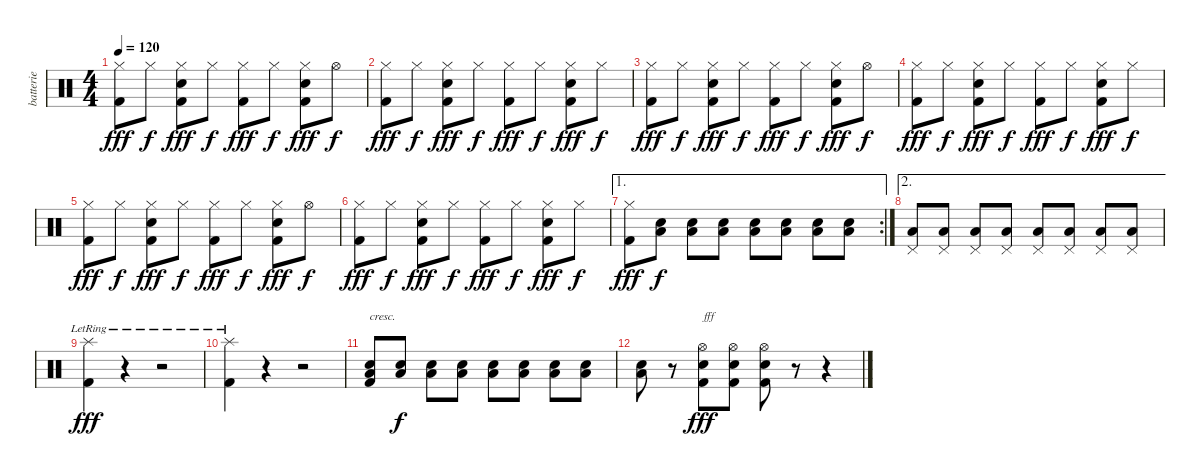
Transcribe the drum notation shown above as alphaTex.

\track ("batterie" "batterie") {instrument percussion}
\staff {score}
\articulation defaults
\ts (4 4)
\tempo 120
\clef neutral
\ks c
("Hi-Hat (closed)" "Kick (hit) 2").8{dy fff} "Hi-Hat (closed)".8{dy f} ("Hi-Hat (closed)" "Electric Snare (hit)" "Kick (hit) 2").8{dy fff} "Hi-Hat (closed)".8{dy f} ("Hi-Hat (closed)" "Kick (hit) 2").8{dy fff} "Hi-Hat (closed)".8{dy f} ("Hi-Hat (closed)" "Electric Snare (hit)" "Kick (hit) 2").8{dy fff} "Hi-Hat (open)".8{dy f} |
("Hi-Hat (closed)" "Kick (hit) 2").8{dy fff} "Hi-Hat (closed)".8{dy f} ("Hi-Hat (closed)" "Electric Snare (hit)" "Kick (hit) 2").8{dy fff} "Hi-Hat (closed)".8{dy f} ("Hi-Hat (closed)" "Kick (hit) 2").8{dy fff} "Hi-Hat (closed)".8{dy f} ("Hi-Hat (closed)" "Electric Snare (hit)" "Kick (hit) 2").8{dy fff} "Hi-Hat (closed)".8{dy f} |
("Hi-Hat (closed)" "Kick (hit) 2").8{dy fff} "Hi-Hat (closed)".8{dy f} ("Hi-Hat (closed)" "Electric Snare (hit)" "Kick (hit) 2").8{dy fff} "Hi-Hat (closed)".8{dy f} ("Hi-Hat (closed)" "Kick (hit) 2").8{dy fff} "Hi-Hat (closed)".8{dy f} ("Hi-Hat (closed)" "Electric Snare (hit)" "Kick (hit) 2").8{dy fff} "Hi-Hat (open)".8{dy f} |
("Hi-Hat (closed)" "Kick (hit) 2").8{dy fff} "Hi-Hat (closed)".8{dy f} ("Hi-Hat (closed)" "Electric Snare (hit)" "Kick (hit) 2").8{dy fff} "Hi-Hat (closed)".8{dy f} ("Hi-Hat (closed)" "Kick (hit) 2").8{dy fff} "Hi-Hat (closed)".8{dy f} ("Hi-Hat (closed)" "Electric Snare (hit)" "Kick (hit) 2").8{dy fff} "Hi-Hat (closed)".8{dy f} |
("Hi-Hat (closed)" "Kick (hit) 2").8{dy fff} "Hi-Hat (closed)".8{dy f} ("Hi-Hat (closed)" "Electric Snare (hit)" "Kick (hit) 2").8{dy fff} "Hi-Hat (closed)".8{dy f} ("Hi-Hat (closed)" "Kick (hit) 2").8{dy fff} "Hi-Hat (closed)".8{dy f} ("Hi-Hat (closed)" "Electric Snare (hit)" "Kick (hit) 2").8{dy fff} "Hi-Hat (open)".8{dy f} |
("Hi-Hat (closed)" "Kick (hit) 2").8{dy fff} "Hi-Hat (closed)".8{dy f} ("Hi-Hat (closed)" "Electric Snare (hit)" "Kick (hit) 2").8{dy fff} "Hi-Hat (closed)".8{dy f} ("Hi-Hat (closed)" "Kick (hit) 2").8{dy fff} "Hi-Hat (closed)".8{dy f} ("Hi-Hat (closed)" "Electric Snare (hit)" "Kick (hit) 2").8{dy fff} "Hi-Hat (closed)".8{dy f} |
\ae 1
\rc 2
("Hi-Hat (closed)" "Kick (hit) 2").8{dy fff} ("Electric Snare (hit)" "Low Floor Tom (hit)").8{dy f} ("Electric Snare (hit)" "Low Floor Tom (hit)").8 ("Electric Snare (hit)" "Low Floor Tom (hit)").8 ("Electric Snare (hit)" "Low Floor Tom (hit)").8 ("Electric Snare (hit)" "Low Floor Tom (hit)").8 ("Electric Snare (hit)" "Low Floor Tom (hit)").8 ("Electric Snare (hit)" "Low Floor Tom (hit)").8 |
\ae 2
("Pedal Hi-Hat (hit)" "Low Floor Tom (hit)").8 ("Pedal Hi-Hat (hit)" "Low Floor Tom (hit)").8 ("Pedal Hi-Hat (hit)" "Low Floor Tom (hit)").8 ("Pedal Hi-Hat (hit)" "Low Floor Tom (hit)").8 ("Pedal Hi-Hat (hit)" "Low Floor Tom (hit)").8 ("Pedal Hi-Hat (hit)" "Low Floor Tom (hit)").8 ("Pedal Hi-Hat (hit)" "Low Floor Tom (hit)").8 ("Pedal Hi-Hat (hit)" "Low Floor Tom (hit)").8 |
("Splash (hit)"{lr} "Kick (hit) 2"{lr}).4{dy fff} r.4 r.2 |
("Splash (hit)"{lr} "Kick (hit) 2"{lr}).4 r.4 r.2{volume 9} |
("Electric Snare (hit)" "Low Floor Tom (hit)" "Kick (hit) 2").8{txt "cresc." volume 16} ("Electric Snare (hit)" "Low Floor Tom (hit)").8{dy f} ("Electric Snare (hit)" "Low Floor Tom (hit)").8 ("Electric Snare (hit)" "Low Floor Tom (hit)").8 ("Electric Snare (hit)" "Low Floor Tom (hit)").8 ("Electric Snare (hit)" "Low Floor Tom (hit)").8 ("Electric Snare (hit)" "Low Floor Tom (hit)").8 ("Electric Snare (hit)" "Low Floor Tom (hit)").8 |
("Electric Snare (hit)" "Low Floor Tom (hit)").8 r.8 ("Hi-Hat (open)" "Electric Snare (hit)" "Kick (hit) 2").8{txt "fff" dy fff} ("Hi-Hat (open)" "Electric Snare (hit)" "Kick (hit) 2").8 ("Hi-Hat (open)" "Electric Snare (hit)" "Kick (hit) 2").8 r.8 r.4
